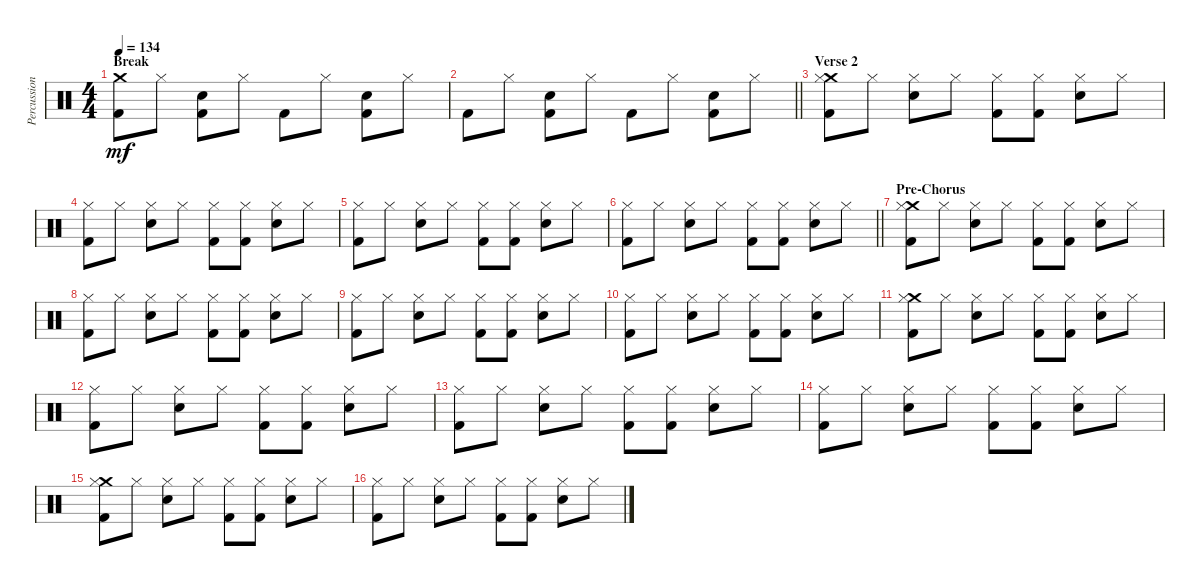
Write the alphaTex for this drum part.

\track ("Percussion" "Percussion") {instrument percussion}
\staff {score}
\articulation defaults
\ts (4 4)
\section ("" "Break")
\tempo 134
\clef neutral
\ks c
("Crash medium (hit)" "Kick (hit) 2").8{dy mf} "Hi-Hat (closed)".8 ("Snare (hit) 2" "Kick (hit) 2").8 "Hi-Hat (closed)".8 "Kick (hit) 2".8 "Hi-Hat (closed)".8 ("Snare (hit) 2" "Kick (hit) 2").8 "Hi-Hat (closed)".8 |
\barLineRight lightlight "Kick (hit) 2".8 "Hi-Hat (closed)".8
("Snare (hit) 2" "Kick (hit) 2").8 "Hi-Hat (closed)".8 "Kick (hit) 2".8 "Hi-Hat (closed)".8 ("Snare (hit) 2" "Kick (hit) 2").8 "Hi-Hat (closed)".8 |
\section ("" "Verse 2")
("Crash medium (hit)" "Hi-Hat (closed)" "Kick (hit) 2").8 "Hi-Hat (closed)".8 ("Hi-Hat (closed)" "Snare (hit) 2").8 "Hi-Hat (closed)".8 ("Hi-Hat (closed)" "Kick (hit) 2").8 ("Hi-Hat (closed)" "Kick (hit) 2").8 ("Hi-Hat (closed)" "Snare (hit) 2").8 "Hi-Hat (closed)".8 |
("Hi-Hat (closed)" "Kick (hit) 2").8 "Hi-Hat (closed)".8 ("Hi-Hat (closed)" "Snare (hit) 2").8 "Hi-Hat (closed)".8 ("Hi-Hat (closed)" "Kick (hit) 2").8 ("Hi-Hat (closed)" "Kick (hit) 2").8 ("Hi-Hat (closed)" "Snare (hit) 2").8 "Hi-Hat (closed)".8 |
("Hi-Hat (closed)" "Kick (hit) 2").8 "Hi-Hat (closed)".8 ("Hi-Hat (closed)" "Snare (hit) 2").8 "Hi-Hat (closed)".8 ("Hi-Hat (closed)" "Kick (hit) 2").8 ("Hi-Hat (closed)" "Kick (hit) 2").8 ("Hi-Hat (closed)" "Snare (hit) 2").8 "Hi-Hat (closed)".8 |
\barLineRight lightlight
("Hi-Hat (closed)" "Kick (hit) 2").8 "Hi-Hat (closed)".8 ("Hi-Hat (closed)" "Snare (hit) 2").8 "Hi-Hat (closed)".8 ("Hi-Hat (closed)" "Kick (hit) 2").8 ("Hi-Hat (closed)" "Kick (hit) 2").8 ("Hi-Hat (closed)" "Snare (hit) 2").8 "Hi-Hat (closed)".8 |
\section ("" "Pre-Chorus")
("Crash medium (hit)" "Hi-Hat (closed)" "Kick (hit) 2").8 "Hi-Hat (closed)".8 ("Hi-Hat (closed)" "Snare (hit) 2").8 "Hi-Hat (closed)".8 ("Hi-Hat (closed)" "Kick (hit) 2").8 ("Hi-Hat (closed)" "Kick (hit) 2").8 ("Hi-Hat (closed)" "Snare (hit) 2").8 "Hi-Hat (closed)".8 |
("Hi-Hat (closed)" "Kick (hit) 2").8 "Hi-Hat (closed)".8 ("Hi-Hat (closed)" "Snare (hit) 2").8 "Hi-Hat (closed)".8 ("Hi-Hat (closed)" "Kick (hit) 2").8 ("Hi-Hat (closed)" "Kick (hit) 2").8 ("Hi-Hat (closed)" "Snare (hit) 2").8 "Hi-Hat (closed)".8 |
("Hi-Hat (closed)" "Kick (hit) 2").8 "Hi-Hat (closed)".8 ("Hi-Hat (closed)" "Snare (hit) 2").8 "Hi-Hat (closed)".8 ("Hi-Hat (closed)" "Kick (hit) 2").8 ("Hi-Hat (closed)" "Kick (hit) 2").8 ("Hi-Hat (closed)" "Snare (hit) 2").8 "Hi-Hat (closed)".8 |
("Hi-Hat (closed)" "Kick (hit) 2").8 "Hi-Hat (closed)".8 ("Hi-Hat (closed)" "Snare (hit) 2").8 "Hi-Hat (closed)".8 ("Hi-Hat (closed)" "Kick (hit) 2").8 ("Hi-Hat (closed)" "Kick (hit) 2").8 ("Hi-Hat (closed)" "Snare (hit) 2").8 "Hi-Hat (closed)".8 |
("Crash medium (hit)" "Hi-Hat (closed)" "Kick (hit) 2").8 "Hi-Hat (closed)".8 ("Hi-Hat (closed)" "Snare (hit) 2").8 "Hi-Hat (closed)".8 ("Hi-Hat (closed)" "Kick (hit) 2").8 ("Hi-Hat (closed)" "Kick (hit) 2").8 ("Hi-Hat (closed)" "Snare (hit) 2").8 "Hi-Hat (closed)".8 |
("Hi-Hat (closed)" "Kick (hit) 2").8 "Hi-Hat (closed)".8 ("Hi-Hat (closed)" "Snare (hit) 2").8 "Hi-Hat (closed)".8 ("Hi-Hat (closed)" "Kick (hit) 2").8 ("Hi-Hat (closed)" "Kick (hit) 2").8 ("Hi-Hat (closed)" "Snare (hit) 2").8 "Hi-Hat (closed)".8 |
("Hi-Hat (closed)" "Kick (hit) 2").8 "Hi-Hat (closed)".8 ("Hi-Hat (closed)" "Snare (hit) 2").8 "Hi-Hat (closed)".8 ("Hi-Hat (closed)" "Kick (hit) 2").8 ("Hi-Hat (closed)" "Kick (hit) 2").8 ("Hi-Hat (closed)" "Snare (hit) 2").8 "Hi-Hat (closed)".8 |
("Hi-Hat (closed)" "Kick (hit) 2").8 "Hi-Hat (closed)".8 ("Hi-Hat (closed)" "Snare (hit) 2").8 "Hi-Hat (closed)".8 ("Hi-Hat (closed)" "Kick (hit) 2").8 ("Hi-Hat (closed)" "Kick (hit) 2").8 ("Hi-Hat (closed)" "Snare (hit) 2").8 "Hi-Hat (closed)".8 |
("Crash medium (hit)" "Hi-Hat (closed)" "Kick (hit) 2").8 "Hi-Hat (closed)".8 ("Hi-Hat (closed)" "Snare (hit) 2").8 "Hi-Hat (closed)".8 ("Hi-Hat (closed)" "Kick (hit) 2").8 ("Hi-Hat (closed)" "Kick (hit) 2").8 ("Hi-Hat (closed)" "Snare (hit) 2").8 "Hi-Hat (closed)".8 |
("Hi-Hat (closed)" "Kick (hit) 2").8 "Hi-Hat (closed)".8 ("Hi-Hat (closed)" "Snare (hit) 2").8 "Hi-Hat (closed)".8 ("Hi-Hat (closed)" "Kick (hit) 2").8 ("Hi-Hat (closed)" "Kick (hit) 2").8 ("Hi-Hat (closed)" "Snare (hit) 2").8 "Hi-Hat (closed)".8
